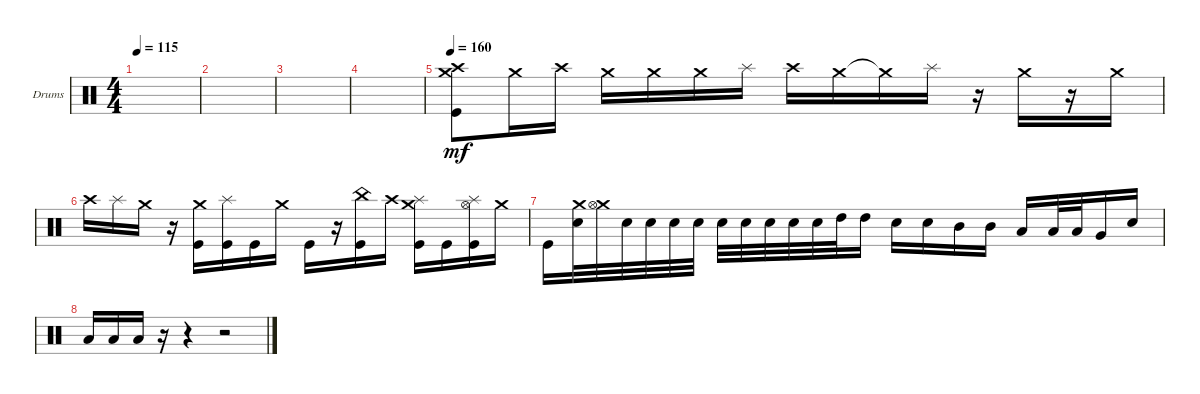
\defaultSystemsLayout 4
\bracketExtendMode groupsimilarinstruments
\firstSystemTrackNameOrientation horizontal
\otherSystemsTrackNameOrientation horizontal
\track ("Drumkit" "Drums") {instrument percussion}
\staff {score}
\articulation defaults
\ts (4 4)
\tempo 115
\clef neutral
\ks c
|
|
|
|
\tempo 160
("Kick (hit)" "Crash high (hit)" "Crash medium (hit)").8{dy mf} "Crash medium (hit)".16 "Crash high (hit)".16 "Crash medium (hit)".16 "Crash medium (hit)".16 "Crash medium (hit)".16 "Splash (hit)".16 "Crash high (hit)".16 "Crash medium (hit)".16 "Crash medium (hit)"{t}.16 "Splash (hit)".16 r.16 "Crash medium (hit)".16 r.16 "Crash medium (hit)".16 |
"Crash high (hit)".16 "Splash (hit)".16 "Crash medium (hit)".16 r.16 ("Kick (hit)" "Crash medium (hit)").16 ("Kick (hit)" "Splash (hit)").16 "Kick (hit)".16 "Crash medium (hit)".16 "Kick (hit)".16 r.16 ("Kick (hit)" "China (hit)").16 "Crash high (hit)".16 ("Kick (hit)" "Splash (hit)" "Crash medium (hit)").16 "Kick (hit)".16 ("Kick (hit)" "Hi-Hat (open)" "Splash (hit)").16 "Crash medium (hit)".16 |
"Kick (hit)".16 ("Crash medium (hit)" "Snare (hit) 2").32 ("Crash medium (hit)" "Hi-Hat (open)").32 "Snare (hit) 2".32 "Snare (hit) 2".32 "Snare (hit) 2".32 "Snare (hit) 2".32 "Snare (hit) 2".32 "Snare (hit) 2".32 "Snare (hit) 2".32 "Snare (hit) 2".32 "Snare (hit) 2".32 "High Tom (hit)".32 "High Tom (hit)".16 "Snare (hit) 2".16 "Snare (hit) 2".16 "Mid Tom (hit)".16 "Mid Tom (hit)".16 "Low Tom (hit)".16 "Low Tom (hit)".32 "Low Tom (hit)".32 "Very Low Tom (hit)".16 "Snare (hit) 2".16 |
"Low Tom (hit)".16 "Low Tom (hit)".16 "Low Tom (hit)".16 r.16 r.4 r.2
